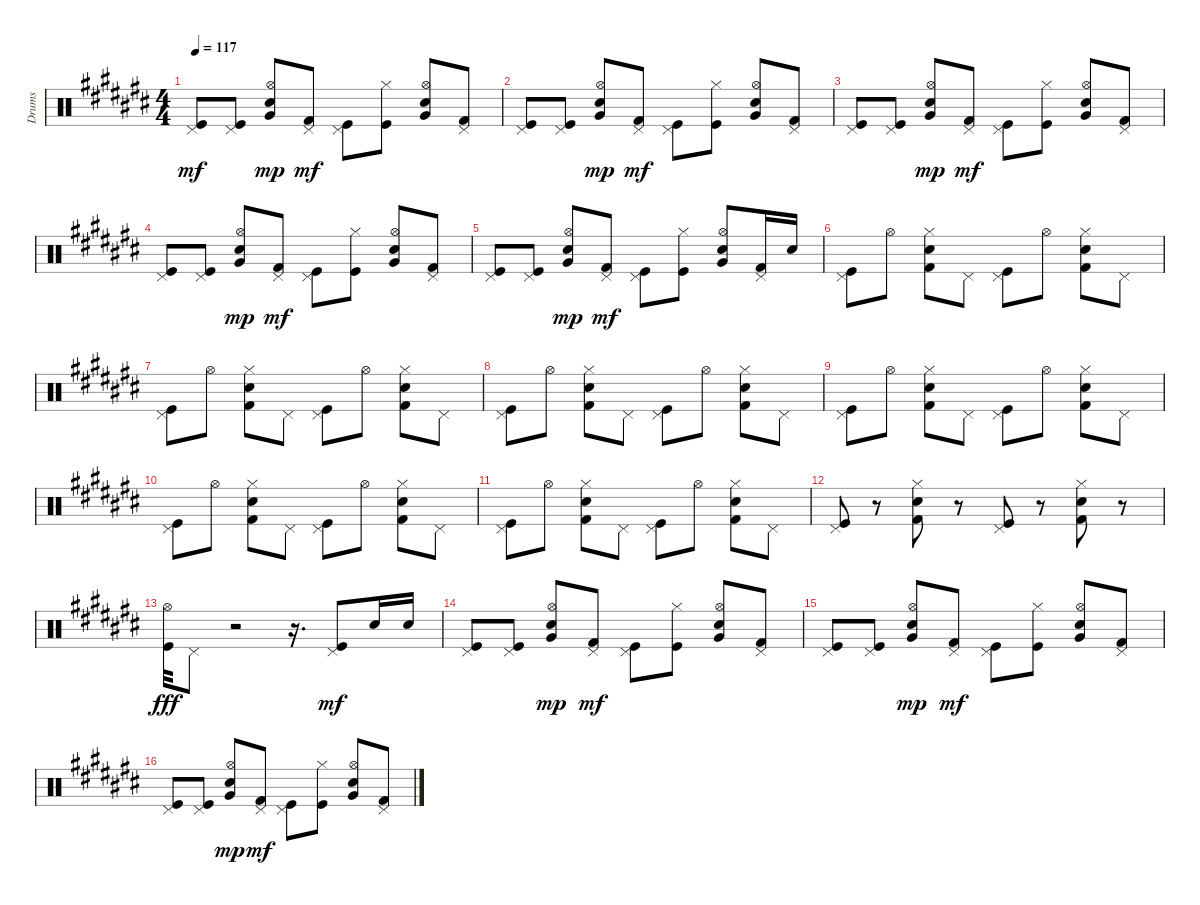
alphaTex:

\track ("Drums" "Drums") {instrument percussion}
\staff {score}
\articulation defaults
\ts (4 4)
\tempo 117
\clef neutral
\ks a#minor
("Pedal Hi-Hat (hit)" "Kick (hit)").8{dy mf} ("Kick (hit)" "Pedal Hi-Hat (hit)").8 ("Snare (hit) 2" "Hi-Hat (open)" "Very Low Tom (hit)").8{dy mp} ("Pedal Hi-Hat (hit)" "Kick (hit) 2").8{dy mf} ("Pedal Hi-Hat (hit)" "Kick (hit)").8 ("Kick (hit)" "Hi-Hat (closed)").8 ("Very Low Tom (hit)" "Snare (hit) 2" "Hi-Hat (open)").8 ("Pedal Hi-Hat (hit)" "Kick (hit) 2").8 |
("Pedal Hi-Hat (hit)" "Kick (hit)").8 ("Kick (hit)" "Pedal Hi-Hat (hit)").8 ("Snare (hit) 2" "Hi-Hat (open)" "Very Low Tom (hit)").8{dy mp} ("Pedal Hi-Hat (hit)" "Kick (hit) 2").8{dy mf} ("Pedal Hi-Hat (hit)" "Kick (hit)").8 ("Kick (hit)" "Hi-Hat (closed)").8 ("Very Low Tom (hit)" "Snare (hit) 2" "Hi-Hat (open)").8 ("Pedal Hi-Hat (hit)" "Kick (hit) 2").8 |
("Pedal Hi-Hat (hit)" "Kick (hit)").8 ("Kick (hit)" "Pedal Hi-Hat (hit)").8 ("Snare (hit) 2" "Hi-Hat (open)" "Very Low Tom (hit)").8{dy mp} ("Pedal Hi-Hat (hit)" "Kick (hit) 2").8{dy mf} ("Pedal Hi-Hat (hit)" "Kick (hit)").8 ("Kick (hit)" "Hi-Hat (closed)").8 ("Very Low Tom (hit)" "Snare (hit) 2" "Hi-Hat (open)").8 ("Pedal Hi-Hat (hit)" "Kick (hit) 2").8 |
("Kick (hit)" "Pedal Hi-Hat (hit)").8 ("Kick (hit)" "Pedal Hi-Hat (hit)").8 ("Snare (hit) 2" "Hi-Hat (open)" "Very Low Tom (hit)").8{dy mp} ("Pedal Hi-Hat (hit)" "Kick (hit) 2").8{dy mf} ("Pedal Hi-Hat (hit)" "Kick (hit)").8 ("Kick (hit)" "Hi-Hat (closed)").8 ("Very Low Tom (hit)" "Snare (hit) 2" "Hi-Hat (open)").8 ("Pedal Hi-Hat (hit)" "Kick (hit) 2").8 |
("Pedal Hi-Hat (hit)" "Kick (hit)").8 ("Kick (hit)" "Pedal Hi-Hat (hit)").8 ("Snare (hit) 2" "Hi-Hat (open)" "Very Low Tom (hit)").8{dy mp} ("Pedal Hi-Hat (hit)" "Kick (hit) 2").8{dy mf} ("Pedal Hi-Hat (hit)" "Kick (hit)").8 ("Kick (hit)" "Hi-Hat (closed)").8 ("Very Low Tom (hit)" "Snare (hit) 2" "Hi-Hat (open)").8 ("Pedal Hi-Hat (hit)" "Kick (hit) 2").16 "Snare (hit) 2".16 |
("Pedal Hi-Hat (hit)" "Kick (hit)").8 "Hi-Hat (open)".8 ("Kick (hit) 2" "Hi-Hat (closed)" "Snare (hit) 2").8 "Pedal Hi-Hat (hit)".8 ("Kick (hit)" "Pedal Hi-Hat (hit)").8 "Hi-Hat (open)".8 ("Kick (hit) 2" "Hi-Hat (closed)" "Snare (hit) 2").8 "Pedal Hi-Hat (hit)".8 |
("Kick (hit)" "Pedal Hi-Hat (hit)").8 "Hi-Hat (open)".8 ("Kick (hit) 2" "Hi-Hat (closed)" "Snare (hit) 2").8 "Pedal Hi-Hat (hit)".8 ("Kick (hit)" "Pedal Hi-Hat (hit)").8 "Hi-Hat (open)".8 ("Kick (hit) 2" "Hi-Hat (closed)" "Snare (hit) 2").8 "Pedal Hi-Hat (hit)".8 |
("Pedal Hi-Hat (hit)" "Kick (hit)").8 "Hi-Hat (open)".8 ("Kick (hit) 2" "Hi-Hat (closed)" "Snare (hit) 2").8 "Pedal Hi-Hat (hit)".8 ("Kick (hit)" "Pedal Hi-Hat (hit)").8 "Hi-Hat (open)".8 ("Kick (hit) 2" "Hi-Hat (closed)" "Snare (hit) 2").8 "Pedal Hi-Hat (hit)".8 |
("Kick (hit)" "Pedal Hi-Hat (hit)").8 "Hi-Hat (open)".8 ("Kick (hit) 2" "Hi-Hat (closed)" "Snare (hit) 2").8 "Pedal Hi-Hat (hit)".8 ("Kick (hit)" "Pedal Hi-Hat (hit)").8 "Hi-Hat (open)".8 ("Kick (hit) 2" "Hi-Hat (closed)" "Snare (hit) 2").8 "Pedal Hi-Hat (hit)".8 |
("Pedal Hi-Hat (hit)" "Kick (hit)").8 "Hi-Hat (open)".8 ("Kick (hit) 2" "Hi-Hat (closed)" "Snare (hit) 2").8 "Pedal Hi-Hat (hit)".8 ("Kick (hit)" "Pedal Hi-Hat (hit)").8 "Hi-Hat (open)".8 ("Kick (hit) 2" "Hi-Hat (closed)" "Snare (hit) 2").8 "Pedal Hi-Hat (hit)".8 |
("Kick (hit)" "Pedal Hi-Hat (hit)").8 "Hi-Hat (open)".8 ("Kick (hit) 2" "Hi-Hat (closed)" "Snare (hit) 2").8 "Pedal Hi-Hat (hit)".8 ("Kick (hit)" "Pedal Hi-Hat (hit)").8 "Hi-Hat (open)".8 ("Kick (hit) 2" "Hi-Hat (closed)" "Snare (hit) 2").8 "Pedal Hi-Hat (hit)".8 |
("Pedal Hi-Hat (hit)" "Kick (hit)").8 r.8 ("Kick (hit) 2" "Hi-Hat (closed)" "Snare (hit) 2").8 r.8 ("Kick (hit)" "Pedal Hi-Hat (hit)").8 r.8 ("Kick (hit) 2" "Hi-Hat (closed)" "Snare (hit) 2").8 r.8 |
("Kick (hit)" "Hi-Hat (open)").32{dy fff} "Pedal Hi-Hat (hit)".8 r.2 r.16{d} ("Pedal Hi-Hat (hit)" "Kick (hit)").8{dy mf} "Snare (hit) 2".16 "Snare (hit) 2".16 |
("Kick (hit)" "Pedal Hi-Hat (hit)").8 ("Kick (hit)" "Pedal Hi-Hat (hit)").8 ("Snare (hit) 2" "Hi-Hat (open)" "Very Low Tom (hit)").8{dy mp} ("Pedal Hi-Hat (hit)" "Kick (hit) 2").8{dy mf} ("Pedal Hi-Hat (hit)" "Kick (hit)").8 ("Kick (hit)" "Hi-Hat (closed)").8 ("Very Low Tom (hit)" "Snare (hit) 2" "Hi-Hat (open)").8 ("Pedal Hi-Hat (hit)" "Kick (hit) 2").8 |
("Pedal Hi-Hat (hit)" "Kick (hit)").8 ("Kick (hit)" "Pedal Hi-Hat (hit)").8 ("Snare (hit) 2" "Hi-Hat (open)" "Very Low Tom (hit)").8{dy mp} ("Pedal Hi-Hat (hit)" "Kick (hit) 2").8{dy mf} ("Pedal Hi-Hat (hit)" "Kick (hit)").8 ("Kick (hit)" "Hi-Hat (closed)").8 ("Very Low Tom (hit)" "Snare (hit) 2" "Hi-Hat (open)").8 ("Pedal Hi-Hat (hit)" "Kick (hit) 2").8 |
("Kick (hit)" "Pedal Hi-Hat (hit)").8 ("Kick (hit)" "Pedal Hi-Hat (hit)").8 ("Snare (hit) 2" "Hi-Hat (open)" "Very Low Tom (hit)").8{dy mp} ("Pedal Hi-Hat (hit)" "Kick (hit) 2").8{dy mf} ("Pedal Hi-Hat (hit)" "Kick (hit)").8 ("Kick (hit)" "Hi-Hat (closed)").8 ("Very Low Tom (hit)" "Snare (hit) 2" "Hi-Hat (open)").8 ("Pedal Hi-Hat (hit)" "Kick (hit) 2").8
